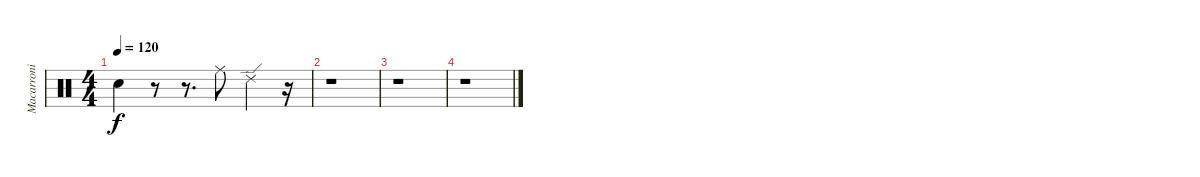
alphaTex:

\track ("Macarroni" "Macarroni") {instrument percussion}
\staff {score}
\articulation defaults
\ts (4 4)
\tempo 120
\clef neutral
\ks c "Snare (hit)"{t}.4{dy f}
r.8 r.8{d} "Ride (middle)".8 "Ride (edge) 2".4 r.16 |
r.1 |
r.1 |
r.1
